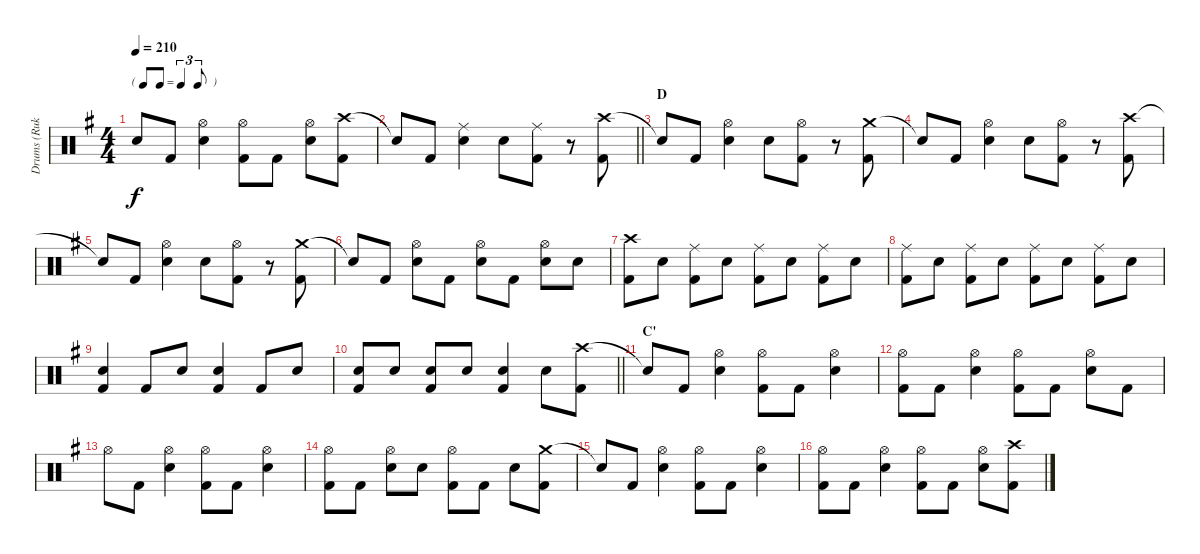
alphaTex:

\track ("Drums (Ruka)" "Drums (Ruk") {instrument percussion}
\staff {score}
\articulation defaults
\ts (4 4)
\tf triplet8th
\tempo 210
\clef neutral
\ks g "Snare (hit)"{t}.8{dy f} "Kick (hit) 2".8
("Hi-Hat (open)" "Electric Snare (hit)").4 ("Hi-Hat (open)" "Kick (hit) 2").8 "Kick (hit) 2".8 ("Hi-Hat (open)" "Electric Snare (hit)").8 ("Crash high (hit)" "Kick (hit) 2").8 |
\barLineRight lightlight "Snare (hit)"{t}.8 "Kick (hit) 2".8
("Ride (middle)" "Electric Snare (hit)").4 "Electric Snare (hit)".8 ("Ride (middle)" "Kick (hit) 2").8 r.8 ("Crash high (hit)" "Kick (hit) 2").8 |
\section ("" "D")
"Snare (hit)"{t}.8 "Kick (hit) 2".8 ("Hi-Hat (open)" "Electric Snare (hit)").4 "Electric Snare (hit)".8 ("Hi-Hat (open)" "Kick (hit) 2").8 r.8 ("Crash medium (hit)" "Kick (hit) 2").8 |
"Snare (hit)"{t}.8 "Kick (hit) 2".8 ("Hi-Hat (open)" "Electric Snare (hit)").4 "Electric Snare (hit)".8 ("Hi-Hat (open)" "Kick (hit) 2").8 r.8 ("Crash high (hit)" "Kick (hit) 2").8 |
"Snare (hit)"{t}.8 "Kick (hit) 2".8 ("Hi-Hat (open)" "Electric Snare (hit)").4 "Electric Snare (hit)".8 ("Hi-Hat (open)" "Kick (hit) 2").8 r.8 ("Crash medium (hit)" "Kick (hit) 2").8 |
"Snare (hit)"{t}.8 "Kick (hit) 2".8 ("Hi-Hat (open)" "Electric Snare (hit)").8 "Kick (hit) 2".8 ("Hi-Hat (open)" "Electric Snare (hit)").8 "Kick (hit) 2".8 ("Hi-Hat (open)" "Electric Snare (hit)").8 "Electric Snare (hit)".8 |
("Crash high (hit)" "Kick (hit) 2").8 "Electric Snare (hit)".8 ("Ride (middle)" "Kick (hit) 2").8 "Electric Snare (hit)".8 ("Ride (middle)" "Kick (hit) 2").8 "Electric Snare (hit)".8 ("Ride (middle)" "Kick (hit) 2").8 "Electric Snare (hit)".8 |
("Ride (middle)" "Kick (hit) 2").8 "Electric Snare (hit)".8 ("Ride (middle)" "Kick (hit) 2").8 "Electric Snare (hit)".8 ("Ride (middle)" "Kick (hit) 2").8 "Electric Snare (hit)".8 ("Ride (middle)" "Kick (hit) 2").8 "Electric Snare (hit)".8 |
("Electric Snare (hit)" "Kick (hit) 2").4 "Kick (hit) 2".8 "Electric Snare (hit)".8 ("Electric Snare (hit)" "Kick (hit) 2").4 "Kick (hit) 2".8 "Electric Snare (hit)".8 |
\barLineRight lightlight
("Electric Snare (hit)" "Kick (hit) 2").8 "Electric Snare (hit)".8 ("Electric Snare (hit)" "Kick (hit) 2").8 "Electric Snare (hit)".8 ("Electric Snare (hit)" "Kick (hit) 2").4 "Electric Snare (hit)".8 ("Crash high (hit)" "Kick (hit) 2").8 |
\section ("" "C'")
"Snare (hit)"{t}.8 "Kick (hit) 2".8 ("Hi-Hat (open)" "Electric Snare (hit)").4 ("Hi-Hat (open)" "Kick (hit) 2").8 "Kick (hit) 2".8 ("Hi-Hat (open)" "Electric Snare (hit)").4 |
("Hi-Hat (open)" "Kick (hit) 2").8 "Kick (hit) 2".8 ("Hi-Hat (open)" "Electric Snare (hit)").4 ("Hi-Hat (open)" "Kick (hit) 2").8 "Kick (hit) 2".8 ("Hi-Hat (open)" "Electric Snare (hit)").8 "Kick (hit) 2".8 |
"Hi-Hat (open)".8 "Kick (hit) 2".8 ("Hi-Hat (open)" "Electric Snare (hit)").4 ("Hi-Hat (open)" "Kick (hit) 2").8 "Kick (hit) 2".8 ("Hi-Hat (open)" "Electric Snare (hit)").4 |
("Hi-Hat (open)" "Kick (hit) 2").8 "Kick (hit) 2".8 ("Hi-Hat (open)" "Electric Snare (hit)").8 "Electric Snare (hit)".8 ("Hi-Hat (open)" "Kick (hit) 2").8 "Kick (hit) 2".8 "Electric Snare (hit)".8 ("Crash medium (hit)" "Kick (hit) 2").8 |
"Snare (hit)"{t}.8 "Kick (hit) 2".8 ("Hi-Hat (open)" "Electric Snare (hit)").4 ("Hi-Hat (open)" "Kick (hit) 2").8 "Kick (hit) 2".8 ("Hi-Hat (open)" "Electric Snare (hit)").4 |
("Hi-Hat (open)" "Kick (hit) 2").8 "Kick (hit) 2".8 ("Hi-Hat (open)" "Electric Snare (hit)").4 ("Hi-Hat (open)" "Kick (hit) 2").8 "Kick (hit) 2".8 ("Hi-Hat (open)" "Electric Snare (hit)").8 ("Crash high (hit)" "Kick (hit) 2").8
